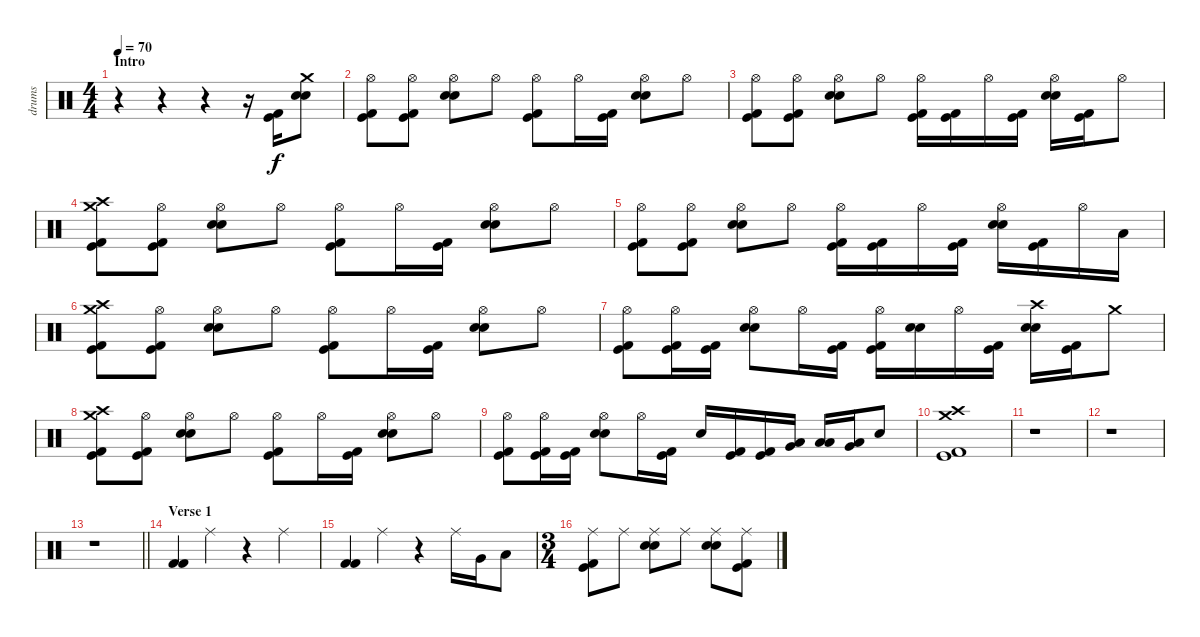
\track ("drums" "drums") {instrument percussion}
\staff {score}
\articulation defaults
\ts (4 4)
\section ("" "Intro")
\tempo 70
\clef neutral
\ks c
r.4{dy f} r.4 r.4 r.16 ("Kick (hit) 2" "Kick (hit)").16 ("Crash medium (hit)" "Electric Snare (hit)" "Electric Snare (hit)").8 |
("Hi-Hat (open)" "Kick (hit) 2" "Kick (hit)").8 ("Hi-Hat (open)" "Kick (hit) 2" "Kick (hit)").8 ("Hi-Hat (open)" "Electric Snare (hit)" "Electric Snare (hit)").8 "Hi-Hat (open)".8 ("Hi-Hat (open)" "Kick (hit) 2" "Kick (hit)").8 "Hi-Hat (open)".16 ("Kick (hit) 2" "Kick (hit)").16 ("Hi-Hat (open)" "Electric Snare (hit)" "Electric Snare (hit)").8 "Hi-Hat (open)".8 |
("Hi-Hat (open)" "Kick (hit) 2" "Kick (hit)").8 ("Hi-Hat (open)" "Kick (hit) 2" "Kick (hit)").8 ("Hi-Hat (open)" "Electric Snare (hit)" "Electric Snare (hit)").8 "Hi-Hat (open)".8 ("Hi-Hat (open)" "Kick (hit) 2" "Kick (hit)").16 ("Kick (hit) 2" "Kick (hit)").16 "Hi-Hat (open)".16 ("Kick (hit) 2" "Kick (hit)").16 ("Hi-Hat (open)" "Electric Snare (hit)" "Electric Snare (hit)").16 ("Kick (hit) 2" "Kick (hit)").16 "Hi-Hat (open)".8 |
("Crash high (hit)" "Crash medium (hit)" "Kick (hit) 2" "Kick (hit)").8 ("Hi-Hat (open)" "Kick (hit) 2" "Kick (hit)").8 ("Hi-Hat (open)" "Electric Snare (hit)" "Electric Snare (hit)").8 "Hi-Hat (open)".8 ("Hi-Hat (open)" "Kick (hit) 2" "Kick (hit)").8 "Hi-Hat (open)".16 ("Kick (hit) 2" "Kick (hit)").16 ("Hi-Hat (open)" "Electric Snare (hit)" "Electric Snare (hit)").8 "Hi-Hat (open)".8 |
("Hi-Hat (open)" "Kick (hit) 2" "Kick (hit)").8 ("Hi-Hat (open)" "Kick (hit) 2" "Kick (hit)").8 ("Hi-Hat (open)" "Electric Snare (hit)" "Electric Snare (hit)").8 "Hi-Hat (open)".8 ("Hi-Hat (open)" "Kick (hit) 2" "Kick (hit)").16 ("Kick (hit) 2" "Kick (hit)").16 "Hi-Hat (open)".16 ("Kick (hit) 2" "Kick (hit)").16 ("Hi-Hat (open)" "Electric Snare (hit)" "Electric Snare (hit)").16 ("Kick (hit) 2" "Kick (hit)").16 "Hi-Hat (open)".16 "Low Floor Tom (hit)".16 |
("Crash high (hit)" "Crash medium (hit)" "Kick (hit) 2" "Kick (hit)").8 ("Hi-Hat (open)" "Kick (hit) 2" "Kick (hit)").8 ("Hi-Hat (open)" "Electric Snare (hit)" "Electric Snare (hit)").8 "Hi-Hat (open)".8 ("Hi-Hat (open)" "Kick (hit) 2" "Kick (hit)").8 "Hi-Hat (open)".16 ("Kick (hit) 2" "Kick (hit)").16 ("Hi-Hat (open)" "Electric Snare (hit)" "Electric Snare (hit)").8 "Hi-Hat (open)".8 |
("Hi-Hat (open)" "Kick (hit) 2" "Kick (hit)").8 ("Hi-Hat (open)" "Kick (hit) 2" "Kick (hit)").16 ("Kick (hit) 2" "Kick (hit)").16 ("Hi-Hat (open)" "Electric Snare (hit)" "Electric Snare (hit)").8 "Hi-Hat (open)".16 ("Kick (hit) 2" "Kick (hit)").16 ("Hi-Hat (open)" "Kick (hit)" "Kick (hit) 2").16 ("Electric Snare (hit)" "Electric Snare (hit)").16 "Hi-Hat (open)".16 ("Kick (hit)" "Kick (hit) 2").16 ("Crash high (hit)" "Electric Snare (hit)" "Electric Snare (hit)").16 ("Kick (hit) 2" "Kick (hit)").16 "Crash medium (hit)".8 |
("Crash high (hit)" "Crash medium (hit)" "Kick (hit) 2" "Kick (hit)").8 ("Hi-Hat (open)" "Kick (hit) 2" "Kick (hit)").8 ("Hi-Hat (open)" "Electric Snare (hit)" "Electric Snare (hit)").8 "Hi-Hat (open)".8 ("Hi-Hat (open)" "Kick (hit) 2" "Kick (hit)").8 "Hi-Hat (open)".16 ("Kick (hit) 2" "Kick (hit)").16 ("Hi-Hat (open)" "Electric Snare (hit)" "Electric Snare (hit)").8 "Hi-Hat (open)".8 |
("Hi-Hat (open)" "Kick (hit) 2" "Kick (hit)").8 ("Hi-Hat (open)" "Kick (hit)" "Kick (hit) 2").16 ("Kick (hit)" "Kick (hit) 2").16 ("Hi-Hat (open)" "Electric Snare (hit)" "Electric Snare (hit)").8 "Hi-Hat (open)".16 ("Kick (hit)" "Kick (hit) 2").16 "Electric Snare (hit)".16 ("Kick (hit)" "Kick (hit) 2").16 ("Kick (hit)" "Kick (hit) 2").16 ("Very Low Tom (hit)" "Low Floor Tom (hit)").16 ("Low Tom (hit)" "Low Tom (hit)").16 ("Very Low Tom (hit)" "Low Floor Tom (hit)").16 "Snare (hit) 2".8 |
("Crash high (hit)" "Crash medium (hit)" "Kick (hit)" "Kick (hit) 2").1 |
r.1 |
r.1 |
\barLineRight lightlight
r.1 |
\section ("" "Verse 1")
("Kick (hit) 2" "Kick (hit) 2").4 "Ride (middle)".4 r.4 "Ride (middle)".4 |
("Kick (hit) 2" "Kick (hit) 2").4 "Ride (middle)".4 r.4 "Ride (middle)".16 "Very Low Tom (hit)".16 "Low Floor Tom (hit)".8 |
\ts (3 4)
("Ride (middle)" "Kick (hit)" "Kick (hit) 2").8 "Ride (middle)".8 ("Ride (middle)" "Electric Snare (hit)" "Snare (hit) 2").8 "Ride (middle)".8 ("Ride (middle)" "Electric Snare (hit)" "Snare (hit) 2").8 ("Ride (middle)" "Kick (hit)" "Kick (hit) 2").8
